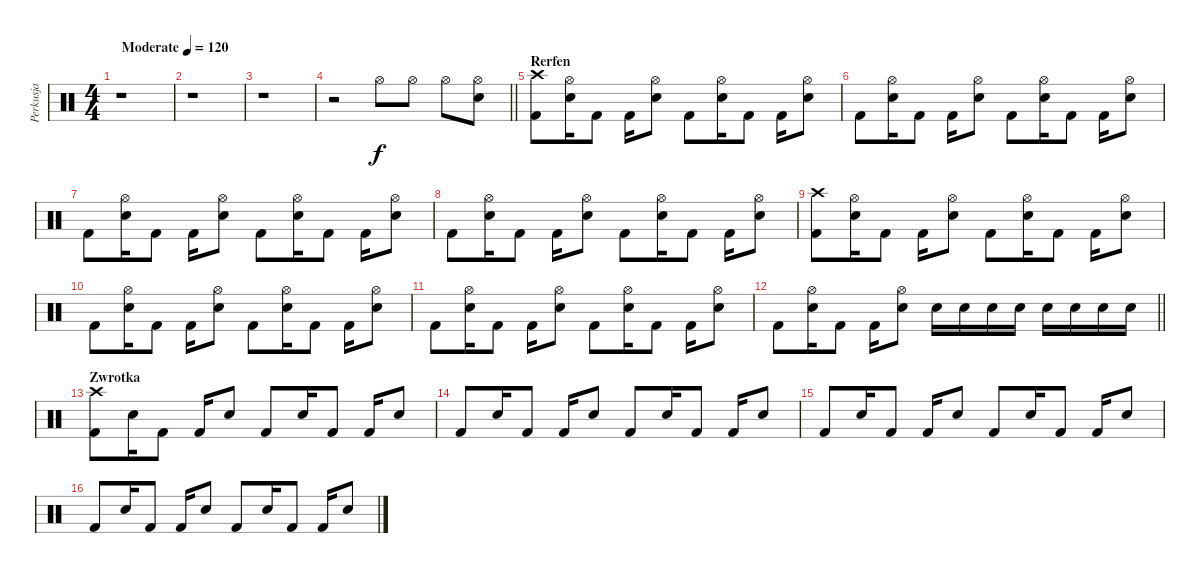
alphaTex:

\track ("Perkusja" "Perkusja") {instrument percussion}
\staff {score}
\articulation defaults
\ts (4 4)
\tempo (120 "Moderate")
\clef neutral
\ks c
r.1{dy f} |
r.1 |
r.1 |
\barLineRight lightlight
r.2 "Hi-Hat (open)".8 "Hi-Hat (open)".8 "Hi-Hat (open)".8 ("Electric Snare (hit)" "Hi-Hat (open)").8 |
\section ("" "Rerfen")
("Crash high (hit)" "Kick (hit) 2").8 ("Hi-Hat (open)" "Electric Snare (hit)").16 "Kick (hit) 2".8 "Kick (hit) 2".16 ("Hi-Hat (open)" "Electric Snare (hit)").8 "Kick (hit) 2".8 ("Hi-Hat (open)" "Electric Snare (hit)").16 "Kick (hit) 2".8 "Kick (hit) 2".16 ("Hi-Hat (open)" "Electric Snare (hit)").8 |
"Kick (hit) 2".8 ("Hi-Hat (open)" "Electric Snare (hit)").16 "Kick (hit) 2".8 "Kick (hit) 2".16 ("Hi-Hat (open)" "Electric Snare (hit)").8 "Kick (hit) 2".8 ("Hi-Hat (open)" "Electric Snare (hit)").16 "Kick (hit) 2".8 "Kick (hit) 2".16 ("Hi-Hat (open)" "Electric Snare (hit)").8 |
"Kick (hit) 2".8 ("Hi-Hat (open)" "Electric Snare (hit)").16 "Kick (hit) 2".8 "Kick (hit) 2".16 ("Hi-Hat (open)" "Electric Snare (hit)").8 "Kick (hit) 2".8 ("Hi-Hat (open)" "Electric Snare (hit)").16 "Kick (hit) 2".8 "Kick (hit) 2".16 ("Hi-Hat (open)" "Electric Snare (hit)").8 |
"Kick (hit) 2".8 ("Hi-Hat (open)" "Electric Snare (hit)").16 "Kick (hit) 2".8 "Kick (hit) 2".16 ("Hi-Hat (open)" "Electric Snare (hit)").8 "Kick (hit) 2".8 ("Hi-Hat (open)" "Electric Snare (hit)").16 "Kick (hit) 2".8 "Kick (hit) 2".16 ("Hi-Hat (open)" "Electric Snare (hit)").8 |
("Crash high (hit)" "Kick (hit) 2").8 ("Hi-Hat (open)" "Electric Snare (hit)").16 "Kick (hit) 2".8 "Kick (hit) 2".16 ("Hi-Hat (open)" "Electric Snare (hit)").8 "Kick (hit) 2".8 ("Hi-Hat (open)" "Electric Snare (hit)").16 "Kick (hit) 2".8 "Kick (hit) 2".16 ("Hi-Hat (open)" "Electric Snare (hit)").8 |
"Kick (hit) 2".8 ("Hi-Hat (open)" "Electric Snare (hit)").16 "Kick (hit) 2".8 "Kick (hit) 2".16 ("Hi-Hat (open)" "Electric Snare (hit)").8 "Kick (hit) 2".8 ("Hi-Hat (open)" "Electric Snare (hit)").16 "Kick (hit) 2".8 "Kick (hit) 2".16 ("Hi-Hat (open)" "Electric Snare (hit)").8 |
"Kick (hit) 2".8 ("Hi-Hat (open)" "Electric Snare (hit)").16 "Kick (hit) 2".8 "Kick (hit) 2".16 ("Hi-Hat (open)" "Electric Snare (hit)").8 "Kick (hit) 2".8 ("Hi-Hat (open)" "Electric Snare (hit)").16 "Kick (hit) 2".8 "Kick (hit) 2".16 ("Hi-Hat (open)" "Electric Snare (hit)").8 |
\barLineRight lightlight "Kick (hit) 2".8
("Hi-Hat (open)" "Electric Snare (hit)").16 "Kick (hit) 2".8 "Kick (hit) 2".16 ("Hi-Hat (open)" "Electric Snare (hit)").8 "Electric Snare (hit)".16 "Electric Snare (hit)".16 "Electric Snare (hit)".16 "Electric Snare (hit)".16 "Electric Snare (hit)".16 "Electric Snare (hit)".16 "Electric Snare (hit)".16 "Electric Snare (hit)".16 |
\section ("" "Zwrotka")
("Crash high (hit)" "Kick (hit) 2").8 "Electric Snare (hit)".16 "Kick (hit) 2".8 "Kick (hit) 2".16 "Electric Snare (hit)".8 "Kick (hit) 2".8 "Electric Snare (hit)".16 "Kick (hit) 2".8 "Kick (hit) 2".16 "Electric Snare (hit)".8 |
"Kick (hit) 2".8 "Electric Snare (hit)".16 "Kick (hit) 2".8 "Kick (hit) 2".16 "Electric Snare (hit)".8 "Kick (hit) 2".8 "Electric Snare (hit)".16 "Kick (hit) 2".8 "Kick (hit) 2".16 "Electric Snare (hit)".8 |
"Kick (hit) 2".8 "Electric Snare (hit)".16 "Kick (hit) 2".8 "Kick (hit) 2".16 "Electric Snare (hit)".8 "Kick (hit) 2".8 "Electric Snare (hit)".16 "Kick (hit) 2".8 "Kick (hit) 2".16 "Electric Snare (hit)".8 |
"Kick (hit) 2".8 "Electric Snare (hit)".16 "Kick (hit) 2".8 "Kick (hit) 2".16 "Electric Snare (hit)".8 "Kick (hit) 2".8 "Electric Snare (hit)".16 "Kick (hit) 2".8 "Kick (hit) 2".16 "Electric Snare (hit)".8
